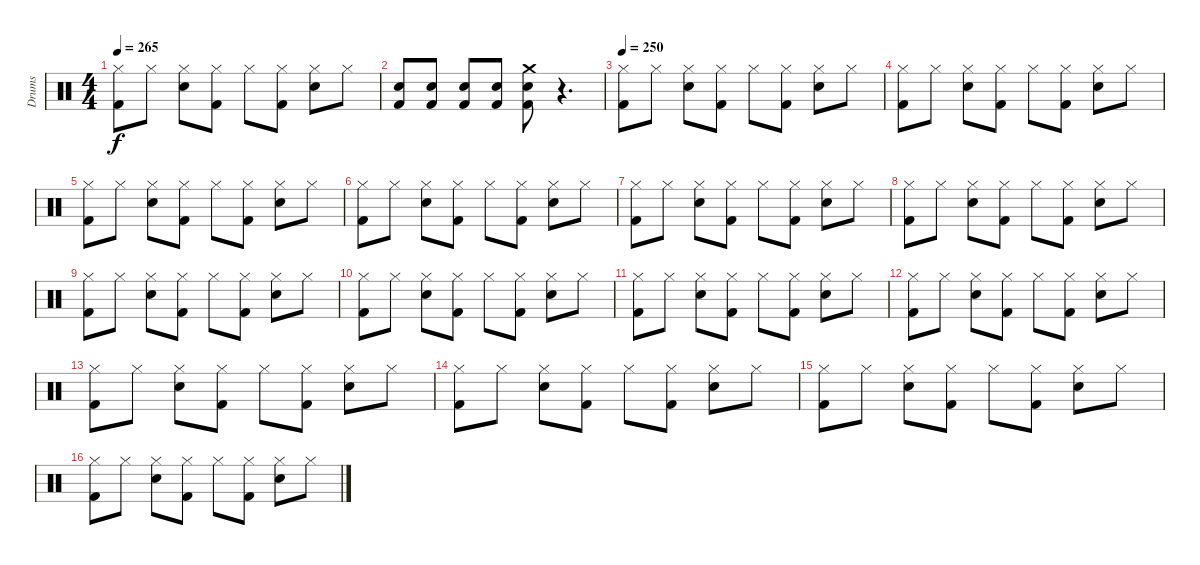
\track ("Drums" "Drums") {instrument percussion}
\staff {score}
\articulation defaults
\ts (4 4)
\tempo 265
\clef neutral
\ks c
("Kick (hit) 2" "Hi-Hat (closed)").8{dy f} "Hi-Hat (closed)".8 ("Snare (hit) 2" "Hi-Hat (closed)").8 ("Kick (hit) 2" "Hi-Hat (closed)").8 "Hi-Hat (closed)".8 ("Kick (hit) 2" "Hi-Hat (closed)").8 ("Snare (hit) 2" "Hi-Hat (closed)").8 "Hi-Hat (closed)".8 |
("Kick (hit) 2" "Snare (hit) 2").8 ("Kick (hit) 2" "Snare (hit) 2").8 ("Kick (hit) 2" "Snare (hit) 2").8 ("Kick (hit) 2" "Snare (hit) 2").8 ("Kick (hit) 2" "Snare (hit) 2" "Crash medium (hit)").8 r.4{d} |
\tempo 250
("Kick (hit) 2" "Hi-Hat (closed)").8 "Hi-Hat (closed)".8 ("Snare (hit) 2" "Hi-Hat (closed)").8 ("Kick (hit) 2" "Hi-Hat (closed)").8 "Hi-Hat (closed)".8 ("Kick (hit) 2" "Hi-Hat (closed)").8 ("Snare (hit) 2" "Hi-Hat (closed)").8 "Hi-Hat (closed)".8 |
("Kick (hit) 2" "Hi-Hat (closed)").8 "Hi-Hat (closed)".8 ("Snare (hit) 2" "Hi-Hat (closed)").8 ("Kick (hit) 2" "Hi-Hat (closed)").8 "Hi-Hat (closed)".8 ("Kick (hit) 2" "Hi-Hat (closed)").8 ("Snare (hit) 2" "Hi-Hat (closed)").8 "Hi-Hat (closed)".8 |
("Kick (hit) 2" "Hi-Hat (closed)").8 "Hi-Hat (closed)".8 ("Snare (hit) 2" "Hi-Hat (closed)").8 ("Kick (hit) 2" "Hi-Hat (closed)").8 "Hi-Hat (closed)".8 ("Kick (hit) 2" "Hi-Hat (closed)").8 ("Snare (hit) 2" "Hi-Hat (closed)").8 "Hi-Hat (closed)".8 |
("Kick (hit) 2" "Hi-Hat (closed)").8 "Hi-Hat (closed)".8 ("Snare (hit) 2" "Hi-Hat (closed)").8 ("Kick (hit) 2" "Hi-Hat (closed)").8 "Hi-Hat (closed)".8 ("Kick (hit) 2" "Hi-Hat (closed)").8 ("Snare (hit) 2" "Hi-Hat (closed)").8 "Hi-Hat (closed)".8 |
("Kick (hit) 2" "Hi-Hat (closed)").8 "Hi-Hat (closed)".8 ("Snare (hit) 2" "Hi-Hat (closed)").8 ("Kick (hit) 2" "Hi-Hat (closed)").8 "Hi-Hat (closed)".8 ("Kick (hit) 2" "Hi-Hat (closed)").8 ("Snare (hit) 2" "Hi-Hat (closed)").8 "Hi-Hat (closed)".8 |
("Kick (hit) 2" "Hi-Hat (closed)").8 "Hi-Hat (closed)".8 ("Snare (hit) 2" "Hi-Hat (closed)").8 ("Kick (hit) 2" "Hi-Hat (closed)").8 "Hi-Hat (closed)".8 ("Kick (hit) 2" "Hi-Hat (closed)").8 ("Snare (hit) 2" "Hi-Hat (closed)").8 "Hi-Hat (closed)".8 |
("Kick (hit) 2" "Hi-Hat (closed)").8 "Hi-Hat (closed)".8 ("Snare (hit) 2" "Hi-Hat (closed)").8 ("Kick (hit) 2" "Hi-Hat (closed)").8 "Hi-Hat (closed)".8 ("Kick (hit) 2" "Hi-Hat (closed)").8 ("Snare (hit) 2" "Hi-Hat (closed)").8 "Hi-Hat (closed)".8 |
("Kick (hit) 2" "Hi-Hat (closed)").8 "Hi-Hat (closed)".8 ("Snare (hit) 2" "Hi-Hat (closed)").8 ("Kick (hit) 2" "Hi-Hat (closed)").8 "Hi-Hat (closed)".8 ("Kick (hit) 2" "Hi-Hat (closed)").8 ("Snare (hit) 2" "Hi-Hat (closed)").8 "Hi-Hat (closed)".8 |
("Kick (hit) 2" "Hi-Hat (closed)").8 "Hi-Hat (closed)".8 ("Snare (hit) 2" "Hi-Hat (closed)").8 ("Kick (hit) 2" "Hi-Hat (closed)").8 "Hi-Hat (closed)".8 ("Kick (hit) 2" "Hi-Hat (closed)").8 ("Snare (hit) 2" "Hi-Hat (closed)").8 "Hi-Hat (closed)".8 |
("Kick (hit) 2" "Hi-Hat (closed)").8 "Hi-Hat (closed)".8 ("Snare (hit) 2" "Hi-Hat (closed)").8 ("Kick (hit) 2" "Hi-Hat (closed)").8 "Hi-Hat (closed)".8 ("Kick (hit) 2" "Hi-Hat (closed)").8 ("Snare (hit) 2" "Hi-Hat (closed)").8 "Hi-Hat (closed)".8 |
("Kick (hit) 2" "Hi-Hat (closed)").8 "Hi-Hat (closed)".8 ("Snare (hit) 2" "Hi-Hat (closed)").8 ("Kick (hit) 2" "Hi-Hat (closed)").8 "Hi-Hat (closed)".8 ("Kick (hit) 2" "Hi-Hat (closed)").8 ("Snare (hit) 2" "Hi-Hat (closed)").8 "Hi-Hat (closed)".8 |
("Kick (hit) 2" "Hi-Hat (closed)").8 "Hi-Hat (closed)".8 ("Snare (hit) 2" "Hi-Hat (closed)").8 ("Kick (hit) 2" "Hi-Hat (closed)").8 "Hi-Hat (closed)".8 ("Kick (hit) 2" "Hi-Hat (closed)").8 ("Snare (hit) 2" "Hi-Hat (closed)").8 "Hi-Hat (closed)".8 |
("Kick (hit) 2" "Hi-Hat (closed)").8 "Hi-Hat (closed)".8 ("Snare (hit) 2" "Hi-Hat (closed)").8 ("Kick (hit) 2" "Hi-Hat (closed)").8 "Hi-Hat (closed)".8 ("Kick (hit) 2" "Hi-Hat (closed)").8 ("Snare (hit) 2" "Hi-Hat (closed)").8 "Hi-Hat (closed)".8 |
("Kick (hit) 2" "Hi-Hat (closed)").8 "Hi-Hat (closed)".8 ("Snare (hit) 2" "Hi-Hat (closed)").8 ("Kick (hit) 2" "Hi-Hat (closed)").8 "Hi-Hat (closed)".8 ("Kick (hit) 2" "Hi-Hat (closed)").8 ("Snare (hit) 2" "Hi-Hat (closed)").8 "Hi-Hat (closed)".8
